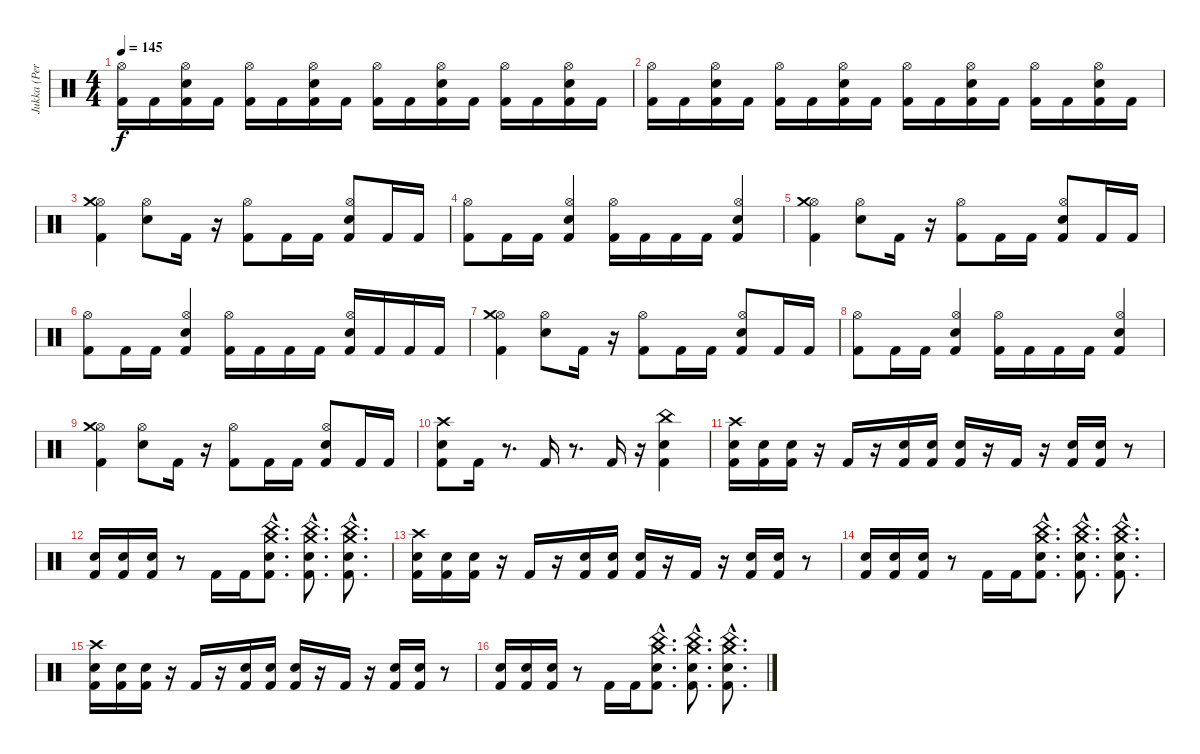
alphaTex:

\track ("Jukka (Percussion)" "Jukka (Per") {instrument percussion}
\staff {score}
\articulation defaults
\ts (4 4)
\tempo 145
\clef neutral
\ks c
("Kick (hit) 2" "Hi-Hat (open)").16{dy f} "Kick (hit) 2".16 ("Kick (hit) 2" "Electric Snare (hit)" "Hi-Hat (open)").16 "Kick (hit) 2".16 ("Kick (hit) 2" "Hi-Hat (open)").16 "Kick (hit) 2".16 ("Kick (hit) 2" "Electric Snare (hit)" "Hi-Hat (open)").16 "Kick (hit) 2".16 ("Kick (hit) 2" "Hi-Hat (open)").16 "Kick (hit) 2".16 ("Kick (hit) 2" "Electric Snare (hit)" "Hi-Hat (open)").16 "Kick (hit) 2".16 ("Kick (hit) 2" "Hi-Hat (open)").16 "Kick (hit) 2".16 ("Kick (hit) 2" "Electric Snare (hit)" "Hi-Hat (open)").16 "Kick (hit) 2".16 |
("Kick (hit) 2" "Hi-Hat (open)").16 "Kick (hit) 2".16 ("Kick (hit) 2" "Electric Snare (hit)" "Hi-Hat (open)").16 "Kick (hit) 2".16 ("Kick (hit) 2" "Hi-Hat (open)").16 "Kick (hit) 2".16 ("Kick (hit) 2" "Electric Snare (hit)" "Hi-Hat (open)").16 "Kick (hit) 2".16 ("Kick (hit) 2" "Hi-Hat (open)").16 "Kick (hit) 2".16 ("Kick (hit) 2" "Electric Snare (hit)" "Hi-Hat (open)").16 "Kick (hit) 2".16 ("Kick (hit) 2" "Hi-Hat (open)").16 "Kick (hit) 2".16 ("Kick (hit) 2" "Electric Snare (hit)" "Hi-Hat (open)").16 "Kick (hit) 2".16 |
("Kick (hit) 2" "Hi-Hat (open)" "Crash medium (hit)").4 ("Electric Snare (hit)" "Hi-Hat (open)").8 "Kick (hit) 2".16 r.16 ("Kick (hit) 2" "Hi-Hat (open)").8 "Kick (hit) 2".16 "Kick (hit) 2".16 ("Kick (hit) 2" "Electric Snare (hit)" "Hi-Hat (open)").8 "Kick (hit) 2".16 "Kick (hit) 2".16 |
("Kick (hit) 2" "Hi-Hat (open)").8 "Kick (hit) 2".16 "Kick (hit) 2".16 ("Kick (hit) 2" "Electric Snare (hit)" "Hi-Hat (open)").4 ("Kick (hit) 2" "Hi-Hat (open)").16 "Kick (hit) 2".16 "Kick (hit) 2".16 "Kick (hit) 2".16 ("Kick (hit) 2" "Electric Snare (hit)" "Hi-Hat (open)").4 |
("Kick (hit) 2" "Hi-Hat (open)" "Crash medium (hit)").4 ("Electric Snare (hit)" "Hi-Hat (open)").8 "Kick (hit) 2".16 r.16 ("Kick (hit) 2" "Hi-Hat (open)").8 "Kick (hit) 2".16 "Kick (hit) 2".16 ("Kick (hit) 2" "Electric Snare (hit)" "Hi-Hat (open)").8 "Kick (hit) 2".16 "Kick (hit) 2".16 |
("Kick (hit) 2" "Hi-Hat (open)").8 "Kick (hit) 2".16 "Kick (hit) 2".16 ("Kick (hit) 2" "Electric Snare (hit)" "Hi-Hat (open)").4 ("Kick (hit) 2" "Hi-Hat (open)").16 "Kick (hit) 2".16 "Kick (hit) 2".16 "Kick (hit) 2".16 ("Kick (hit) 2" "Electric Snare (hit)" "Hi-Hat (open)").16 "Kick (hit) 2".16 "Kick (hit) 2".16 "Kick (hit) 2".16 |
("Kick (hit) 2" "Hi-Hat (open)" "Crash medium (hit)").4 ("Electric Snare (hit)" "Hi-Hat (open)").8 "Kick (hit) 2".16 r.16 ("Kick (hit) 2" "Hi-Hat (open)").8 "Kick (hit) 2".16 "Kick (hit) 2".16 ("Kick (hit) 2" "Electric Snare (hit)" "Hi-Hat (open)").8 "Kick (hit) 2".16 "Kick (hit) 2".16 |
("Kick (hit) 2" "Hi-Hat (open)").8 "Kick (hit) 2".16 "Kick (hit) 2".16 ("Kick (hit) 2" "Electric Snare (hit)" "Hi-Hat (open)").4 ("Kick (hit) 2" "Hi-Hat (open)").16 "Kick (hit) 2".16 "Kick (hit) 2".16 "Kick (hit) 2".16 ("Kick (hit) 2" "Electric Snare (hit)" "Hi-Hat (open)").4 |
("Kick (hit) 2" "Hi-Hat (open)" "Crash medium (hit)").4 ("Electric Snare (hit)" "Hi-Hat (open)").8 "Kick (hit) 2".16 r.16 ("Kick (hit) 2" "Hi-Hat (open)").8 "Kick (hit) 2".16 "Kick (hit) 2".16 ("Kick (hit) 2" "Electric Snare (hit)" "Hi-Hat (open)").8 "Kick (hit) 2".16 "Kick (hit) 2".16 |
("Kick (hit) 2" "Electric Snare (hit)" "Crash high (hit)").8 "Kick (hit) 2".16 r.8{d} "Kick (hit) 2".16 r.8{d} "Kick (hit) 2".16 r.16 ("Kick (hit) 2" "Electric Snare (hit)" "China (hit)").4 |
("Kick (hit) 2" "Electric Snare (hit)" "Crash high (hit)").16 ("Kick (hit) 2" "Electric Snare (hit)").16 ("Kick (hit) 2" "Electric Snare (hit)").16 r.16 "Kick (hit) 2".16 r.16 ("Kick (hit) 2" "Electric Snare (hit)").16 ("Kick (hit) 2" "Electric Snare (hit)").16 ("Kick (hit) 2" "Electric Snare (hit)").16 r.16 "Kick (hit) 2".16 r.16 ("Kick (hit) 2" "Electric Snare (hit)").16 ("Kick (hit) 2" "Electric Snare (hit)").16 r.8 |
("Kick (hit) 2" "Electric Snare (hit)").16 ("Kick (hit) 2" "Electric Snare (hit)").16 ("Kick (hit) 2" "Electric Snare (hit)").16 r.8 "Kick (hit) 2".16 "Kick (hit) 2".16 ("Kick (hit) 2" "Electric Snare (hit)" "China (hit)"{hac} "Crash medium (hit)"{hac}).8{d} ("Kick (hit) 2" "Electric Snare (hit)" "China (hit)"{hac} "Crash medium (hit)"{hac}).8{d} ("Kick (hit) 2" "Electric Snare (hit)" "China (hit)"{hac} "Crash medium (hit)"{hac}).8{d} |
("Kick (hit) 2" "Electric Snare (hit)" "Crash high (hit)").16 ("Kick (hit) 2" "Electric Snare (hit)").16 ("Kick (hit) 2" "Electric Snare (hit)").16 r.16 "Kick (hit) 2".16 r.16 ("Kick (hit) 2" "Electric Snare (hit)").16 ("Kick (hit) 2" "Electric Snare (hit)").16 ("Kick (hit) 2" "Electric Snare (hit)").16 r.16 "Kick (hit) 2".16 r.16 ("Kick (hit) 2" "Electric Snare (hit)").16 ("Kick (hit) 2" "Electric Snare (hit)").16 r.8 |
("Kick (hit) 2" "Electric Snare (hit)").16 ("Kick (hit) 2" "Electric Snare (hit)").16 ("Kick (hit) 2" "Electric Snare (hit)").16 r.8 "Kick (hit) 2".16 "Kick (hit) 2".16 ("Kick (hit) 2" "Electric Snare (hit)" "China (hit)"{hac} "Crash medium (hit)"{hac}).8{d} ("Kick (hit) 2" "Electric Snare (hit)" "China (hit)"{hac} "Crash medium (hit)"{hac}).8{d} ("Kick (hit) 2" "Electric Snare (hit)" "China (hit)"{hac} "Crash medium (hit)"{hac}).8{d} |
("Kick (hit) 2" "Electric Snare (hit)" "Crash high (hit)").16 ("Kick (hit) 2" "Electric Snare (hit)").16 ("Kick (hit) 2" "Electric Snare (hit)").16 r.16 "Kick (hit) 2".16 r.16 ("Kick (hit) 2" "Electric Snare (hit)").16 ("Kick (hit) 2" "Electric Snare (hit)").16 ("Kick (hit) 2" "Electric Snare (hit)").16 r.16 "Kick (hit) 2".16 r.16 ("Kick (hit) 2" "Electric Snare (hit)").16 ("Kick (hit) 2" "Electric Snare (hit)").16 r.8 |
("Kick (hit) 2" "Electric Snare (hit)").16 ("Kick (hit) 2" "Electric Snare (hit)").16 ("Kick (hit) 2" "Electric Snare (hit)").16 r.8 "Kick (hit) 2".16 "Kick (hit) 2".16 ("Kick (hit) 2" "Electric Snare (hit)" "China (hit)"{hac} "Crash medium (hit)"{hac}).8{d} ("Kick (hit) 2" "Electric Snare (hit)" "China (hit)"{hac} "Crash medium (hit)"{hac}).8{d} ("Kick (hit) 2" "Electric Snare (hit)" "China (hit)"{hac} "Crash medium (hit)"{hac}).8{d}
